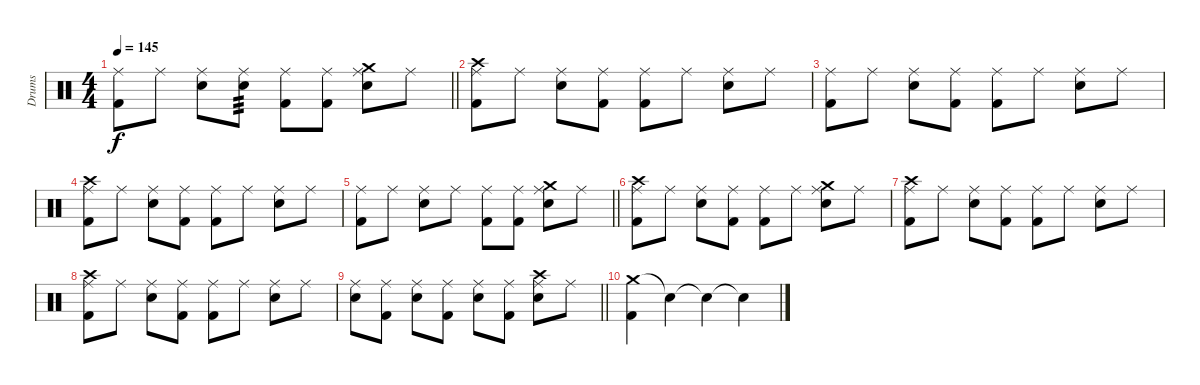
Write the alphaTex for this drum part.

\track ("Drums" "Drums") {instrument percussion}
\staff {score}
\articulation defaults
\ts (4 4)
\tempo 145
\clef neutral
\barLineRight lightlight
\ks c
("Kick (hit) 2" "Ride (middle)").8{dy f} "Ride (middle)".8 ("Snare (hit) 2" "Ride (middle)").8 ("Snare (hit) 2" "Ride (middle)").8{tp 3} ("Kick (hit) 2" "Ride (middle)").8 ("Kick (hit) 2" "Ride (middle)").8 ("Snare (hit) 2" "Ride (middle)" "Crash medium (hit)").8 "Ride (middle)".8 |
("Kick (hit) 2" "Ride (middle)" "Crash high (hit)").8 "Ride (middle)".8 ("Snare (hit) 2" "Ride (middle)").8 ("Kick (hit) 2" "Ride (middle)").8 ("Kick (hit) 2" "Ride (middle)").8 "Ride (middle)".8 ("Snare (hit) 2" "Ride (middle)").8 "Ride (middle)".8 |
("Kick (hit) 2" "Ride (middle)").8 "Ride (middle)".8 ("Snare (hit) 2" "Ride (middle)").8 ("Kick (hit) 2" "Ride (middle)").8 ("Kick (hit) 2" "Ride (middle)").8 "Ride (middle)".8 ("Snare (hit) 2" "Ride (middle)").8 "Ride (middle)".8 |
("Kick (hit) 2" "Ride (middle)" "Crash high (hit)").8 "Ride (middle)".8 ("Snare (hit) 2" "Ride (middle)").8 ("Kick (hit) 2" "Ride (middle)").8 ("Kick (hit) 2" "Ride (middle)").8 "Ride (middle)".8 ("Snare (hit) 2" "Ride (middle)").8 "Ride (middle)".8 |
\barLineRight lightlight
("Kick (hit) 2" "Ride (middle)").8 "Ride (middle)".8 ("Snare (hit) 2" "Ride (middle)").8 "Ride (middle)".8 ("Kick (hit) 2" "Ride (middle)").8 ("Kick (hit) 2" "Ride (middle)").8 ("Snare (hit) 2" "Ride (middle)" "Crash medium (hit)").8 "Ride (middle)".8 |
("Kick (hit) 2" "Ride (middle)" "Crash high (hit)").8 "Ride (middle)".8 ("Snare (hit) 2" "Ride (middle)").8 ("Kick (hit) 2" "Ride (middle)").8 ("Kick (hit) 2" "Ride (middle)").8 "Ride (middle)".8 ("Snare (hit) 2" "Ride (middle)" "Crash medium (hit)").8 "Ride (middle)".8 |
("Kick (hit) 2" "Ride (middle)" "Crash high (hit)").8 "Ride (middle)".8 ("Snare (hit) 2" "Ride (middle)").8 ("Kick (hit) 2" "Ride (middle)").8 ("Kick (hit) 2" "Ride (middle)").8 "Ride (middle)".8 ("Snare (hit) 2" "Ride (middle)").8 "Ride (middle)".8 |
("Kick (hit) 2" "Ride (middle)" "Crash high (hit)").8 "Ride (middle)".8 ("Snare (hit) 2" "Ride (middle)").8 ("Kick (hit) 2" "Ride (middle)").8 ("Kick (hit) 2" "Ride (middle)").8 "Ride (middle)".8 ("Snare (hit) 2" "Ride (middle)").8 "Ride (middle)".8 |
\barLineRight lightlight
("Snare (hit) 2" "Ride (middle)").8 ("Kick (hit) 2" "Ride (middle)").8 ("Snare (hit) 2" "Ride (middle)").8 ("Kick (hit) 2" "Ride (middle)").8 ("Snare (hit) 2" "Ride (middle)").8 ("Kick (hit) 2" "Ride (middle)").8 ("Snare (hit) 2" "Ride (middle)" "Crash high (hit)").8 "Ride (middle)".8 |
("Crash medium (hit)" "Kick (hit) 2").4 "Snare (hit)"{t}.4 "Snare (hit)"{t}.4 "Snare (hit)"{t}.4
